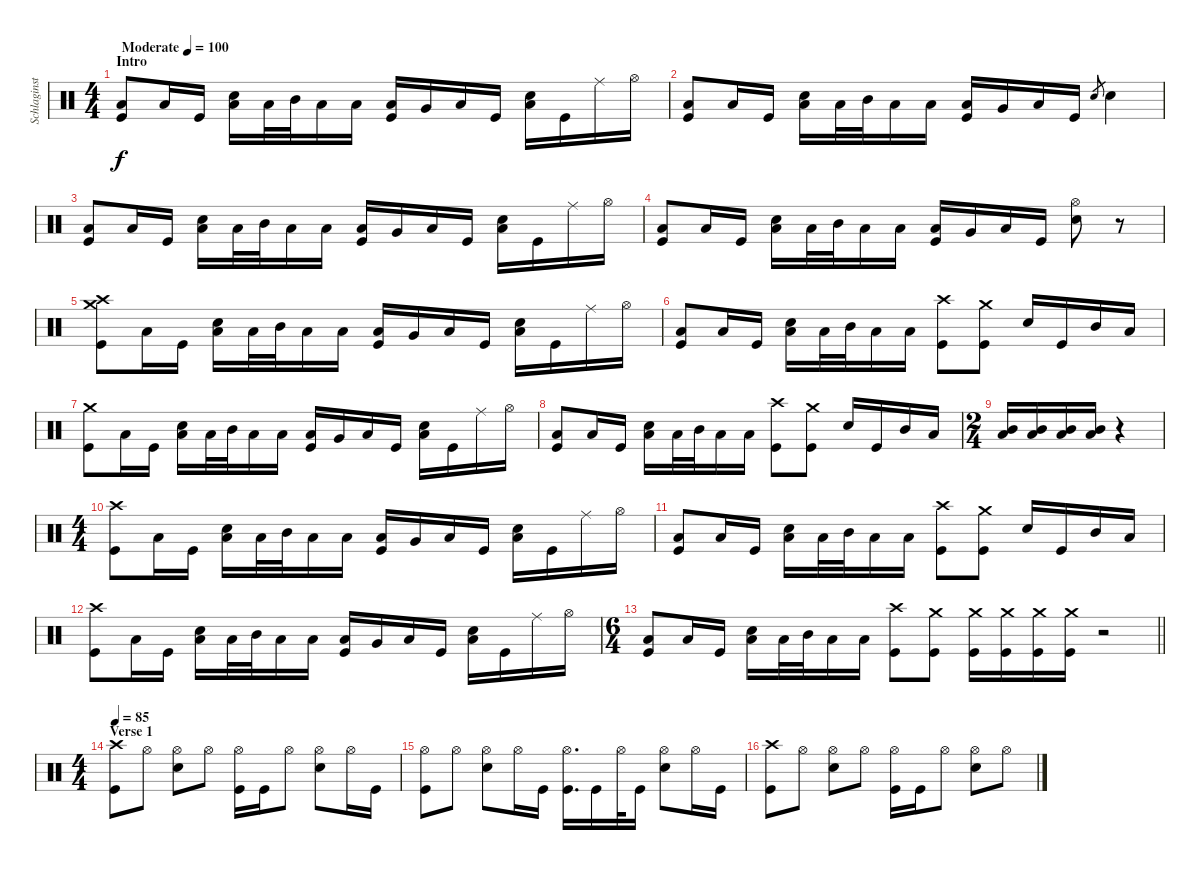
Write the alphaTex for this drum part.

\track ("Schlaginstrumente - Auswahl" "Schlaginst") {instrument percussion}
\staff {score}
\articulation defaults
\ts (4 4)
\section ("" "Intro")
\tempo (100 "Moderate")
\clef neutral
\ks c
("Low Floor Tom (hit)" "Kick (hit)").8{dy f} "Low Floor Tom (hit)".16 "Kick (hit)".16 ("Snare (hit) 2" "Low Floor Tom (hit)").16 "Low Floor Tom (hit)".32 "Mid Tom (hit)".32 "Low Floor Tom (hit)".16 "Low Floor Tom (hit)".16 ("Low Floor Tom (hit)" "Kick (hit)").16 "Very Low Tom (hit)".16 "Low Floor Tom (hit)".16 "Kick (hit)".16 ("Snare (hit) 2" "Low Floor Tom (hit)").16 "Kick (hit)".16 "Ride (middle)".16 "Hi-Hat (open)".16 |
("Low Floor Tom (hit)" "Kick (hit)").8 "Low Floor Tom (hit)".16 "Kick (hit)".16 ("Snare (hit) 2" "Low Floor Tom (hit)").16 "Low Floor Tom (hit)".32 "Mid Tom (hit)".32 "Low Floor Tom (hit)".16 "Low Floor Tom (hit)".16 ("Low Floor Tom (hit)" "Kick (hit)").16 "Very Low Tom (hit)".16 "Low Floor Tom (hit)".16 "Kick (hit)".16 "Snare (hit) 2".8{gr} "Snare (hit) 2".4 |
("Low Floor Tom (hit)" "Kick (hit)").8 "Low Floor Tom (hit)".16 "Kick (hit)".16 ("Snare (hit) 2" "Low Floor Tom (hit)").16 "Low Floor Tom (hit)".32 "Mid Tom (hit)".32 "Low Floor Tom (hit)".16 "Low Floor Tom (hit)".16 ("Low Floor Tom (hit)" "Kick (hit)").16 "Very Low Tom (hit)".16 "Low Floor Tom (hit)".16 "Kick (hit)".16 ("Snare (hit) 2" "Low Floor Tom (hit)").16 "Kick (hit)".16 "Ride (middle)".16 "Hi-Hat (open)".16 |
("Low Floor Tom (hit)" "Kick (hit)").8 "Low Floor Tom (hit)".16 "Kick (hit)".16 ("Snare (hit) 2" "Low Floor Tom (hit)").16 "Low Floor Tom (hit)".32 "Mid Tom (hit)".32 "Low Floor Tom (hit)".16 "Low Floor Tom (hit)".16 ("Low Floor Tom (hit)" "Kick (hit)").16 "Very Low Tom (hit)".16 "Low Floor Tom (hit)".16 "Kick (hit)".16 ("Hi-Hat (open)" "Snare (hit) 2").8 r.8{volume 1} |
("Crash medium (hit)" "Crash high (hit)" "Kick (hit)").8{volume 13} "Low Floor Tom (hit)".16 "Kick (hit)".16 ("Snare (hit) 2" "Low Floor Tom (hit)").16 "Low Floor Tom (hit)".32 "Mid Tom (hit)".32 "Low Floor Tom (hit)".16 "Low Floor Tom (hit)".16 ("Low Floor Tom (hit)" "Kick (hit)").16 "Very Low Tom (hit)".16 "Low Floor Tom (hit)".16 "Kick (hit)".16 ("Snare (hit) 2" "Low Floor Tom (hit)").16 "Kick (hit)".16 "Ride (middle)".16 "Hi-Hat (open)".16 |
("Low Floor Tom (hit)" "Kick (hit)").8 "Low Floor Tom (hit)".16 "Kick (hit)".16 ("Snare (hit) 2" "Low Floor Tom (hit)").16 "Low Floor Tom (hit)".32 "Mid Tom (hit)".32 "Low Floor Tom (hit)".16 "Low Floor Tom (hit)".16 ("Crash high (hit)" "Kick (hit)").8 ("Crash medium (hit)" "Kick (hit)").8 "Snare (hit) 2".16 "Kick (hit)".16 "Mid Tom (hit)".16 "Low Floor Tom (hit)".16 |
("Crash medium (hit)" "Kick (hit)").8 "Low Floor Tom (hit)".16 "Kick (hit)".16 ("Snare (hit) 2" "Low Floor Tom (hit)").16 "Low Floor Tom (hit)".32 "Mid Tom (hit)".32 "Low Floor Tom (hit)".16 "Low Floor Tom (hit)".16 ("Low Floor Tom (hit)" "Kick (hit)").16 "Very Low Tom (hit)".16 "Low Floor Tom (hit)".16 "Kick (hit)".16 ("Snare (hit) 2" "Low Floor Tom (hit)").16 "Kick (hit)".16 "Ride (middle)".16 "Hi-Hat (open)".16 |
("Low Floor Tom (hit)" "Kick (hit)").8 "Low Floor Tom (hit)".16 "Kick (hit)".16 ("Snare (hit) 2" "Low Floor Tom (hit)").16 "Low Floor Tom (hit)".32 "Mid Tom (hit)".32 "Low Floor Tom (hit)".16 "Low Floor Tom (hit)".16 ("Crash high (hit)" "Kick (hit)").8 ("Crash medium (hit)" "Kick (hit)").8 "Snare (hit) 2".16 "Kick (hit)".16 "Mid Tom (hit)".16 "Low Floor Tom (hit)".16 |
\ts (2 4)
("Mid Tom (hit)" "Low Floor Tom (hit)").16 ("Mid Tom (hit)" "Low Floor Tom (hit)").16 ("Mid Tom (hit)" "Low Floor Tom (hit)").16 ("Mid Tom (hit)" "Low Floor Tom (hit)").16 r.4 |
\ts (4 4)
("Crash high (hit)" "Kick (hit)").8 "Low Floor Tom (hit)".16 "Kick (hit)".16 ("Snare (hit) 2" "Low Floor Tom (hit)").16 "Low Floor Tom (hit)".32 "Mid Tom (hit)".32 "Low Floor Tom (hit)".16 "Low Floor Tom (hit)".16 ("Low Floor Tom (hit)" "Kick (hit)").16 "Very Low Tom (hit)".16 "Low Floor Tom (hit)".16 "Kick (hit)".16 ("Snare (hit) 2" "Low Floor Tom (hit)").16 "Kick (hit)".16 "Ride (middle)".16 "Hi-Hat (open)".16 |
("Low Floor Tom (hit)" "Kick (hit)").8 "Low Floor Tom (hit)".16 "Kick (hit)".16 ("Snare (hit) 2" "Low Floor Tom (hit)").16 "Low Floor Tom (hit)".32 "Mid Tom (hit)".32 "Low Floor Tom (hit)".16 "Low Floor Tom (hit)".16 ("Crash high (hit)" "Kick (hit)").8 ("Crash medium (hit)" "Kick (hit)").8 "Snare (hit) 2".16 "Kick (hit)".16 "Mid Tom (hit)".16 "Low Floor Tom (hit)".16 |
("Crash high (hit)" "Kick (hit)").8 "Low Floor Tom (hit)".16 "Kick (hit)".16 ("Snare (hit) 2" "Low Floor Tom (hit)").16 "Low Floor Tom (hit)".32 "Mid Tom (hit)".32 "Low Floor Tom (hit)".16 "Low Floor Tom (hit)".16 ("Low Floor Tom (hit)" "Kick (hit)").16 "Very Low Tom (hit)".16 "Low Floor Tom (hit)".16 "Kick (hit)".16 ("Snare (hit) 2" "Low Floor Tom (hit)").16 "Kick (hit)".16 "Ride (middle)".16 "Hi-Hat (open)".16 |
\ts (6 4)
\barLineRight lightlight
("Low Floor Tom (hit)" "Kick (hit)").8 "Low Floor Tom (hit)".16 "Kick (hit)".16 ("Snare (hit) 2" "Low Floor Tom (hit)").16 "Low Floor Tom (hit)".32 "Mid Tom (hit)".32 "Low Floor Tom (hit)".16 "Low Floor Tom (hit)".16 ("Crash high (hit)" "Kick (hit)").8 ("Crash medium (hit)" "Kick (hit)").8 ("Crash medium (hit)" "Kick (hit)").16 ("Crash medium (hit)" "Kick (hit)").16 ("Crash medium (hit)" "Kick (hit)").16 ("Crash medium (hit)" "Kick (hit)").16 r.2{volume 1} |
\ts (4 4)
\section ("" "Verse 1")
\tempo 85
("Crash high (hit)" "Kick (hit)").8{volume 13} "Hi-Hat (open)".8 ("Hi-Hat (open)" "Snare (hit) 2").8 "Hi-Hat (open)".8 ("Hi-Hat (open)" "Kick (hit)").16 "Kick (hit)".16 "Hi-Hat (open)".8 ("Hi-Hat (open)" "Snare (hit) 2").8 "Hi-Hat (open)".16 "Kick (hit)".16 |
("Hi-Hat (open)" "Kick (hit)").8 "Hi-Hat (open)".8 ("Hi-Hat (open)" "Snare (hit) 2").8 "Hi-Hat (open)".16 "Kick (hit)".16 ("Hi-Hat (open)" "Kick (hit)").16{d} "Kick (hit)".16 "Hi-Hat (open)".32 "Kick (hit)".16 ("Hi-Hat (open)" "Snare (hit) 2").8 "Hi-Hat (open)".16 "Kick (hit)".16 |
("Crash high (hit)" "Kick (hit)").8 "Hi-Hat (open)".8 ("Hi-Hat (open)" "Snare (hit) 2").8 "Hi-Hat (open)".8 ("Hi-Hat (open)" "Kick (hit)").16 "Kick (hit)".16 "Hi-Hat (open)".8 ("Hi-Hat (open)" "Snare (hit) 2").8 "Hi-Hat (open)".8
